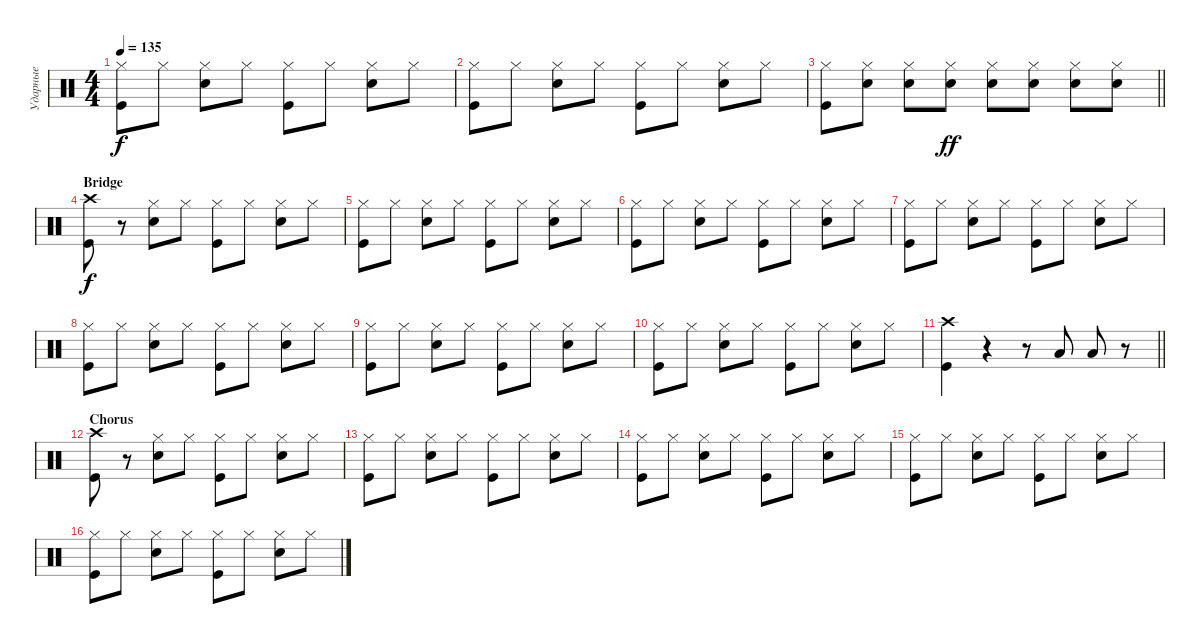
\track ("Ударные" "Ударные") {instrument percussion}
\staff {score}
\articulation defaults
\ts (4 4)
\tempo 135
\clef neutral
\ks c
("Hi-Hat (closed)" "Kick (hit)").8{dy f} "Hi-Hat (closed)".8 ("Hi-Hat (closed)" "Snare (hit) 2").8 "Hi-Hat (closed)".8 ("Hi-Hat (closed)" "Kick (hit)").8 "Hi-Hat (closed)".8 ("Hi-Hat (closed)" "Snare (hit) 2").8 "Hi-Hat (closed)".8 |
("Hi-Hat (closed)" "Kick (hit)").8 "Hi-Hat (closed)".8 ("Hi-Hat (closed)" "Snare (hit) 2").8 "Hi-Hat (closed)".8 ("Hi-Hat (closed)" "Kick (hit)").8 "Hi-Hat (closed)".8 ("Hi-Hat (closed)" "Snare (hit) 2").8 "Hi-Hat (closed)".8 |
\barLineRight lightlight
("Hi-Hat (closed)" "Kick (hit)").8 ("Snare (hit) 2" "Hi-Hat (closed)").8 ("Snare (hit) 2" "Hi-Hat (closed)").8 ("Snare (hit) 2" "Hi-Hat (closed)").8{dy ff} ("Snare (hit) 2" "Hi-Hat (closed)").8 ("Snare (hit) 2" "Hi-Hat (closed)").8 ("Snare (hit) 2" "Hi-Hat (closed)").8 ("Snare (hit) 2" "Hi-Hat (closed)").8 |
\section ("" "Bridge")
("Crash high (hit)" "Kick (hit)").8{dy f} r.8 ("Hi-Hat (closed)" "Snare (hit) 2").8 "Hi-Hat (closed)".8 ("Hi-Hat (closed)" "Kick (hit)").8 "Hi-Hat (closed)".8 ("Hi-Hat (closed)" "Snare (hit) 2").8 "Hi-Hat (closed)".8 |
("Hi-Hat (closed)" "Kick (hit)").8 "Hi-Hat (closed)".8 ("Hi-Hat (closed)" "Snare (hit) 2").8 "Hi-Hat (closed)".8 ("Hi-Hat (closed)" "Kick (hit)").8 "Hi-Hat (closed)".8 ("Hi-Hat (closed)" "Snare (hit) 2").8 "Hi-Hat (closed)".8 |
("Hi-Hat (closed)" "Kick (hit)").8 "Hi-Hat (closed)".8 ("Hi-Hat (closed)" "Snare (hit) 2").8 "Hi-Hat (closed)".8 ("Hi-Hat (closed)" "Kick (hit)").8 "Hi-Hat (closed)".8 ("Hi-Hat (closed)" "Snare (hit) 2").8 "Hi-Hat (closed)".8 |
("Hi-Hat (closed)" "Kick (hit)").8 "Hi-Hat (closed)".8 ("Hi-Hat (closed)" "Snare (hit) 2").8 "Hi-Hat (closed)".8 ("Hi-Hat (closed)" "Kick (hit)").8 "Hi-Hat (closed)".8 ("Hi-Hat (closed)" "Snare (hit) 2").8 "Hi-Hat (closed)".8 |
("Hi-Hat (closed)" "Kick (hit)").8 "Hi-Hat (closed)".8 ("Hi-Hat (closed)" "Snare (hit) 2").8 "Hi-Hat (closed)".8 ("Hi-Hat (closed)" "Kick (hit)").8 "Hi-Hat (closed)".8 ("Hi-Hat (closed)" "Snare (hit) 2").8 "Hi-Hat (closed)".8 |
("Hi-Hat (closed)" "Kick (hit)").8 "Hi-Hat (closed)".8 ("Hi-Hat (closed)" "Snare (hit) 2").8 "Hi-Hat (closed)".8 ("Hi-Hat (closed)" "Kick (hit)").8 "Hi-Hat (closed)".8 ("Hi-Hat (closed)" "Snare (hit) 2").8 "Hi-Hat (closed)".8 |
("Hi-Hat (closed)" "Kick (hit)").8 "Hi-Hat (closed)".8 ("Hi-Hat (closed)" "Snare (hit) 2").8 "Hi-Hat (closed)".8 ("Hi-Hat (closed)" "Kick (hit)").8 "Hi-Hat (closed)".8 ("Hi-Hat (closed)" "Snare (hit) 2").8 "Hi-Hat (closed)".8 |
\barLineRight lightlight
("Kick (hit)" "Crash high (hit)").4 r.4 r.8 "Low Tom (hit)".8 "Low Tom (hit)".8 r.8 |
\section ("" "Chorus")
("Crash high (hit)" "Kick (hit)").8 r.8 ("Hi-Hat (closed)" "Snare (hit) 2").8 "Hi-Hat (closed)".8 ("Hi-Hat (closed)" "Kick (hit)").8 "Hi-Hat (closed)".8 ("Hi-Hat (closed)" "Snare (hit) 2").8 "Hi-Hat (closed)".8 |
("Hi-Hat (closed)" "Kick (hit)").8 "Hi-Hat (closed)".8 ("Hi-Hat (closed)" "Snare (hit) 2").8 "Hi-Hat (closed)".8 ("Hi-Hat (closed)" "Kick (hit)").8 "Hi-Hat (closed)".8 ("Hi-Hat (closed)" "Snare (hit) 2").8 "Hi-Hat (closed)".8 |
("Hi-Hat (closed)" "Kick (hit)").8 "Hi-Hat (closed)".8 ("Hi-Hat (closed)" "Snare (hit) 2").8 "Hi-Hat (closed)".8 ("Hi-Hat (closed)" "Kick (hit)").8 "Hi-Hat (closed)".8 ("Hi-Hat (closed)" "Snare (hit) 2").8 "Hi-Hat (closed)".8 |
("Hi-Hat (closed)" "Kick (hit)").8 "Hi-Hat (closed)".8 ("Hi-Hat (closed)" "Snare (hit) 2").8 "Hi-Hat (closed)".8 ("Hi-Hat (closed)" "Kick (hit)").8 "Hi-Hat (closed)".8 ("Hi-Hat (closed)" "Snare (hit) 2").8 "Hi-Hat (closed)".8 |
("Hi-Hat (closed)" "Kick (hit)").8 "Hi-Hat (closed)".8 ("Hi-Hat (closed)" "Snare (hit) 2").8 "Hi-Hat (closed)".8 ("Hi-Hat (closed)" "Kick (hit)").8 "Hi-Hat (closed)".8 ("Hi-Hat (closed)" "Snare (hit) 2").8 "Hi-Hat (closed)".8
